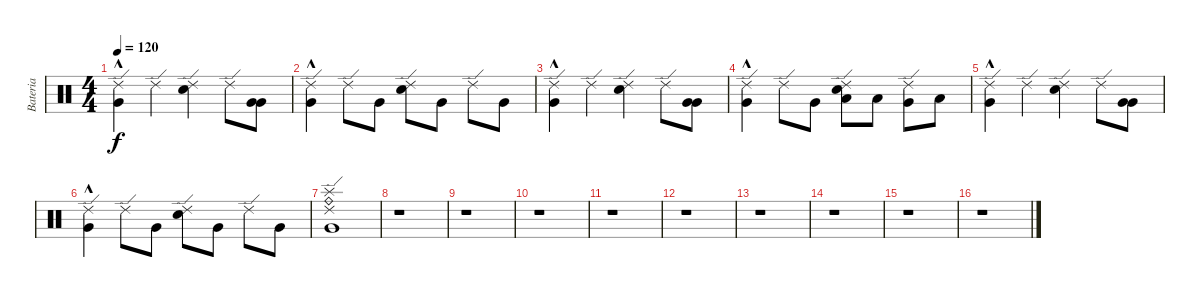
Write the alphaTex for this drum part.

\track ("Bateria" "Bateria") {instrument percussion}
\staff {score}
\articulation defaults
\ts (4 4)
\tempo 120
\clef neutral
\ks c
("Ride (edge) 2" "Very Low Tom (hit)"{hac}).4{dy f} "Ride (edge) 2".4 ("Ride (edge) 2" "Snare (hit) 2").4 "Ride (edge) 2".8 ("Very Low Tom (hit)" "Very Low Tom (hit)").8 |
("Ride (edge) 2" "Very Low Tom (hit)"{hac}).4 "Ride (edge) 2".8 "Very Low Tom (hit)".8 ("Snare (hit) 2" "Ride (edge) 2").8 "Very Low Tom (hit)".8 "Ride (edge) 2".8 "Very Low Tom (hit)".8 |
("Ride (edge) 2" "Very Low Tom (hit)"{hac}).4 "Ride (edge) 2".4 ("Ride (edge) 2" "Snare (hit) 2").4 "Ride (edge) 2".8 ("Very Low Tom (hit)" "Very Low Tom (hit)").8 |
("Ride (edge) 2" "Very Low Tom (hit)"{hac}).4 "Ride (edge) 2".8 "Very Low Tom (hit)".8 ("Low Tom (hit)" "Snare (hit) 2" "Ride (edge) 2").8 "Low Tom (hit)".8 ("Very Low Tom (hit)" "Ride (edge) 2").8 "Low Floor Tom (hit)".8 |
("Ride (edge) 2" "Very Low Tom (hit)"{hac}).4 "Ride (edge) 2".4 ("Ride (edge) 2" "Snare (hit) 2").4 "Ride (edge) 2".8 ("Very Low Tom (hit)" "Very Low Tom (hit)").8 |
("Ride (edge) 2" "Very Low Tom (hit)"{hac}).4 "Ride (edge) 2".8 "Very Low Tom (hit)".8 ("Snare (hit) 2" "Ride (edge) 2").8 "Very Low Tom (hit)".8 "Ride (edge) 2".8 "Very Low Tom (hit)".8 |
("Ride (edge) 2" "Ride (bell)" "Splash (hit)" "Very Low Tom (hit)").1 |
r.1 |
r.1 |
r.1 |
r.1 |
r.1 |
r.1 |
r.1 |
r.1 |
r.1
